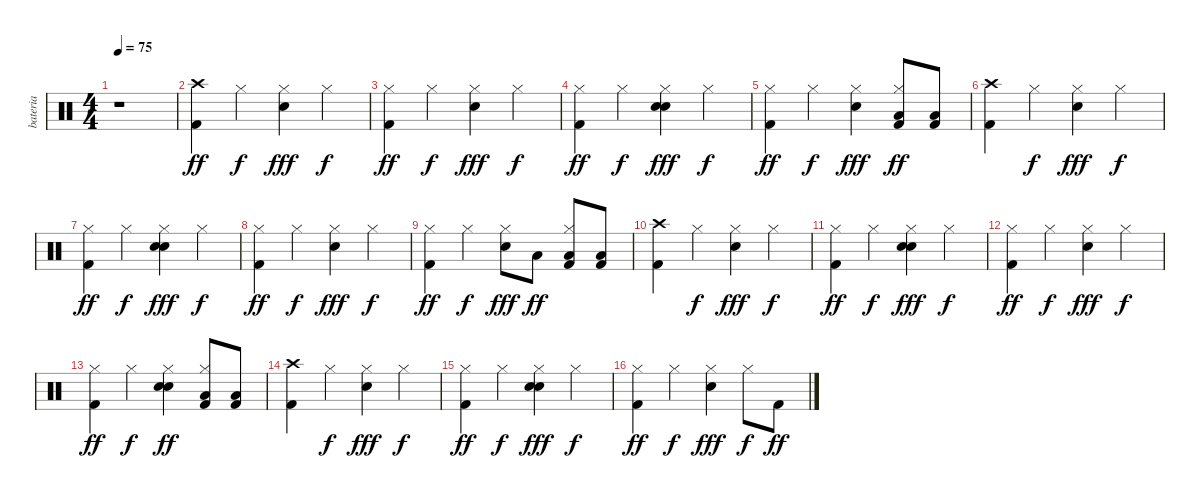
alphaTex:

\track ("bateria" "bateria") {instrument percussion}
\staff {score}
\articulation defaults
\ts (4 4)
\tempo 75
\clef neutral
\ks c
r.1{dy ff} |
("Crash high (hit)" "Kick (hit) 2").4 "Hi-Hat (closed)".4{dy f} ("Hi-Hat (closed)" "Electric Snare (hit)").4{dy fff} "Hi-Hat (closed)".4{dy f} |
("Hi-Hat (closed)" "Kick (hit) 2").4{dy ff} "Hi-Hat (closed)".4{dy f} ("Hi-Hat (closed)" "Electric Snare (hit)").4{dy fff} "Hi-Hat (closed)".4{dy f} |
("Hi-Hat (closed)" "Kick (hit) 2").4{dy ff} "Hi-Hat (closed)".4{dy f} ("Hi-Hat (closed)" "Electric Snare (hit)" "Electric Snare (hit)").4{bd 60 dy fff} "Hi-Hat (closed)".4{dy f} |
("Hi-Hat (closed)" "Kick (hit) 2").4{dy ff} "Hi-Hat (closed)".4{dy f} ("Hi-Hat (closed)" "Electric Snare (hit)").4{dy fff} ("Hi-Hat (closed)" "Low Floor Tom (hit)" "Kick (hit) 2").8{dy ff} ("Low Floor Tom (hit)" "Kick (hit) 2").8 |
("Crash high (hit)" "Kick (hit) 2").4 "Hi-Hat (closed)".4{dy f} ("Hi-Hat (closed)" "Electric Snare (hit)").4{dy fff} "Hi-Hat (closed)".4{dy f} |
("Hi-Hat (closed)" "Kick (hit) 2").4{dy ff} "Hi-Hat (closed)".4{dy f} ("Hi-Hat (closed)" "Electric Snare (hit)" "Electric Snare (hit)").4{bd 60 dy fff} "Hi-Hat (closed)".4{dy f} |
("Hi-Hat (closed)" "Kick (hit) 2").4{dy ff} "Hi-Hat (closed)".4{dy f} ("Hi-Hat (closed)" "Electric Snare (hit)").4{dy fff} "Hi-Hat (closed)".4{dy f} |
("Hi-Hat (closed)" "Kick (hit) 2").4{dy ff} "Hi-Hat (closed)".4{dy f} ("Hi-Hat (closed)" "Electric Snare (hit)").8{dy fff} "Low Floor Tom (hit)".8{dy ff} ("Hi-Hat (closed)" "Low Floor Tom (hit)" "Kick (hit) 2").8 ("Low Floor Tom (hit)" "Kick (hit) 2").8 |
("Crash high (hit)" "Kick (hit) 2").4 "Hi-Hat (closed)".4{dy f} ("Hi-Hat (closed)" "Electric Snare (hit)").4{dy fff} "Hi-Hat (closed)".4{dy f} |
("Hi-Hat (closed)" "Kick (hit) 2").4{dy ff} "Hi-Hat (closed)".4{dy f} ("Hi-Hat (closed)" "Electric Snare (hit)" "Electric Snare (hit)").4{bd 60 dy fff} "Hi-Hat (closed)".4{dy f} |
("Hi-Hat (closed)" "Kick (hit) 2").4{dy ff} "Hi-Hat (closed)".4{dy f} ("Hi-Hat (closed)" "Electric Snare (hit)").4{dy fff} "Hi-Hat (closed)".4{dy f} |
("Hi-Hat (closed)" "Kick (hit) 2").4{dy ff} "Hi-Hat (closed)".4{dy f} ("Hi-Hat (closed)" "Electric Snare (hit)" "Electric Snare (hit)").4{bd 60 dy ff} ("Hi-Hat (closed)" "Low Floor Tom (hit)" "Kick (hit) 2").8 ("Low Floor Tom (hit)" "Kick (hit) 2").8 |
("Crash high (hit)" "Kick (hit) 2").4 "Hi-Hat (closed)".4{dy f} ("Hi-Hat (closed)" "Electric Snare (hit)").4{dy fff} "Hi-Hat (closed)".4{dy f} |
("Hi-Hat (closed)" "Kick (hit) 2").4{dy ff} "Hi-Hat (closed)".4{dy f} ("Hi-Hat (closed)" "Electric Snare (hit)" "Electric Snare (hit)").4{bd 60 dy fff} "Hi-Hat (closed)".4{dy f} |
("Hi-Hat (closed)" "Kick (hit) 2").4{dy ff} "Hi-Hat (closed)".4{dy f} ("Hi-Hat (closed)" "Electric Snare (hit)").4{dy fff} "Hi-Hat (closed)".8{dy f} "Kick (hit) 2".8{dy ff}
